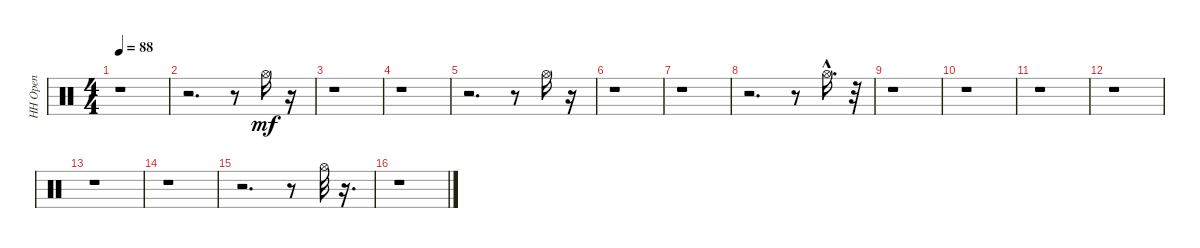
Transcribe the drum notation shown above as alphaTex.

\track ("HH Open" "HH Open") {instrument percussion}
\staff {score}
\articulation defaults
\ts (4 4)
\tempo 88
\clef neutral
\ks c
r.1{dy mf} |
r.2{d} r.8 "Hi-Hat (open)".16 r.16 |
r.1 |
r.1 |
r.2{d} r.8 "Hi-Hat (open)".16 r.16 |
r.1 |
r.1 |
r.2{d} r.8 "Hi-Hat (open)"{hac}.16{d} r.32 |
r.1 |
r.1 |
r.1 |
r.1 |
r.1 |
r.1 |
r.2{d} r.8 "Hi-Hat (open)".32 r.16{d} |
r.1
